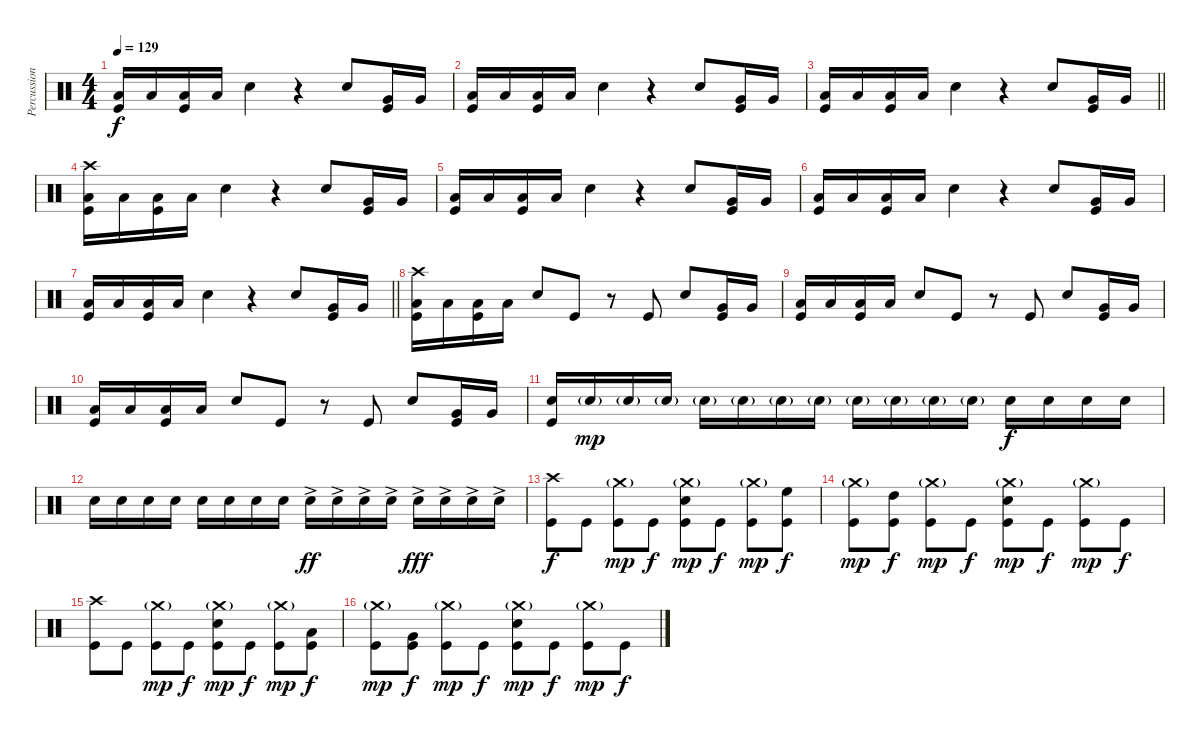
\track ("Percussion" "Percussion") {instrument percussion}
\staff {score}
\articulation defaults
\ts (4 4)
\tempo 129
\clef neutral
\ks c
("Low Tom (hit)" "Kick (hit)").16{dy f} "Low Tom (hit)".16 ("Low Floor Tom (hit)" "Kick (hit)").16 "Low Floor Tom (hit)".16 "Electric Snare (hit)".4 r.4 "Electric Snare (hit)".8 ("Very Low Tom (hit)" "Kick (hit)").16 "Very Low Tom (hit)".16 |
("Low Tom (hit)" "Kick (hit)").16 "Low Tom (hit)".16 ("Low Floor Tom (hit)" "Kick (hit)").16 "Low Floor Tom (hit)".16 "Electric Snare (hit)".4 r.4 "Electric Snare (hit)".8 ("Very Low Tom (hit)" "Kick (hit)").16 "Very Low Tom (hit)".16 |
\barLineRight lightlight
("Low Tom (hit)" "Kick (hit)").16 "Low Tom (hit)".16 ("Low Floor Tom (hit)" "Kick (hit)").16 "Low Floor Tom (hit)".16 "Electric Snare (hit)".4 r.4 "Electric Snare (hit)".8 ("Very Low Tom (hit)" "Kick (hit)").16 "Very Low Tom (hit)".16 |
("Crash high (hit)" "Low Tom (hit)" "Kick (hit)").16 "Low Tom (hit)".16 ("Low Floor Tom (hit)" "Kick (hit)").16 "Low Floor Tom (hit)".16 "Electric Snare (hit)".4 r.4 "Electric Snare (hit)".8 ("Very Low Tom (hit)" "Kick (hit)").16 "Very Low Tom (hit)".16 |
("Low Tom (hit)" "Kick (hit)").16 "Low Tom (hit)".16 ("Low Floor Tom (hit)" "Kick (hit)").16 "Low Floor Tom (hit)".16 "Electric Snare (hit)".4 r.4 "Electric Snare (hit)".8 ("Very Low Tom (hit)" "Kick (hit)").16 "Very Low Tom (hit)".16 |
("Low Tom (hit)" "Kick (hit)").16 "Low Tom (hit)".16 ("Low Floor Tom (hit)" "Kick (hit)").16 "Low Floor Tom (hit)".16 "Electric Snare (hit)".4 r.4 "Electric Snare (hit)".8 ("Very Low Tom (hit)" "Kick (hit)").16 "Very Low Tom (hit)".16 |
\barLineRight lightlight
("Low Tom (hit)" "Kick (hit)").16 "Low Tom (hit)".16 ("Low Floor Tom (hit)" "Kick (hit)").16 "Low Floor Tom (hit)".16 "Electric Snare (hit)".4 r.4 "Electric Snare (hit)".8 ("Very Low Tom (hit)" "Kick (hit)").16 "Very Low Tom (hit)".16 |
("Crash high (hit)" "Low Tom (hit)" "Kick (hit)").16 "Low Tom (hit)".16 ("Low Floor Tom (hit)" "Kick (hit)").16 "Low Floor Tom (hit)".16 "Electric Snare (hit)".8 "Kick (hit)".8 r.8 "Kick (hit)".8 "Electric Snare (hit)".8 ("Very Low Tom (hit)" "Kick (hit)").16 "Very Low Tom (hit)".16 |
("Low Tom (hit)" "Kick (hit)").16 "Low Tom (hit)".16 ("Low Floor Tom (hit)" "Kick (hit)").16 "Low Floor Tom (hit)".16 "Electric Snare (hit)".8 "Kick (hit)".8 r.8 "Kick (hit)".8 "Electric Snare (hit)".8 ("Very Low Tom (hit)" "Kick (hit)").16 "Very Low Tom (hit)".16 |
("Low Tom (hit)" "Kick (hit)").16 "Low Tom (hit)".16 ("Low Floor Tom (hit)" "Kick (hit)").16 "Low Floor Tom (hit)".16 "Electric Snare (hit)".8 "Kick (hit)".8 r.8 "Kick (hit)".8 "Electric Snare (hit)".8 ("Very Low Tom (hit)" "Kick (hit)").16 "Very Low Tom (hit)".16 |
("Electric Snare (hit)" "Kick (hit)").16 "Electric Snare (hit)"{g}.16{dy mp volume 2} "Electric Snare (hit)"{g}.16{volume 13} "Electric Snare (hit)"{g}.16 "Electric Snare (hit)"{g}.16 "Electric Snare (hit)"{g}.16 "Electric Snare (hit)"{g}.16 "Electric Snare (hit)"{g}.16 "Electric Snare (hit)"{g}.16 "Electric Snare (hit)"{g}.16 "Electric Snare (hit)"{g}.16 "Electric Snare (hit)"{g}.16 "Electric Snare (hit)".16{dy f} "Electric Snare (hit)".16 "Electric Snare (hit)".16 "Electric Snare (hit)".16 |
"Electric Snare (hit)".16 "Electric Snare (hit)".16 "Electric Snare (hit)".16 "Electric Snare (hit)".16 "Electric Snare (hit)".16 "Electric Snare (hit)".16 "Electric Snare (hit)".16 "Electric Snare (hit)".16 "Electric Snare (hit)"{ac}.16{dy ff} "Electric Snare (hit)"{ac}.16 "Electric Snare (hit)"{ac}.16 "Electric Snare (hit)"{ac}.16 "Electric Snare (hit)"{ac}.16{dy fff} "Electric Snare (hit)"{ac}.16 "Electric Snare (hit)"{ac}.16 "Electric Snare (hit)"{ac}.16 |
("Crash high (hit)" "Kick (hit)").8{dy f} "Kick (hit)".8 ("Crash medium (hit)"{g} "Kick (hit)").8{dy mp} "Kick (hit)".8{dy f} ("Crash medium (hit)"{g} "Electric Snare (hit)" "Kick (hit)").8{dy mp} "Kick (hit)".8{dy f} ("Crash medium (hit)"{g} "Kick (hit)").8{dy mp} ("High Floor Tom (hit)" "Kick (hit)").8{dy f} |
("Crash medium (hit)"{g} "Kick (hit)").8{dy mp} ("High Tom (hit)" "Kick (hit)").8{dy f} ("Crash medium (hit)"{g} "Kick (hit)").8{dy mp} "Kick (hit)".8{dy f} ("Crash medium (hit)"{g} "Electric Snare (hit)" "Kick (hit)").8{dy mp} "Kick (hit)".8{dy f} ("Crash medium (hit)"{g} "Kick (hit)").8{dy mp} "Kick (hit)".8{dy f} |
("Crash high (hit)" "Kick (hit)").8 "Kick (hit)".8 ("Crash medium (hit)"{g} "Kick (hit)").8{dy mp} "Kick (hit)".8{dy f} ("Crash medium (hit)"{g} "Electric Snare (hit)" "Kick (hit)").8{dy mp} "Kick (hit)".8{dy f} ("Crash medium (hit)"{g} "Kick (hit)").8{dy mp} ("Low Tom (hit)" "Kick (hit)").8{dy f} |
("Crash medium (hit)"{g} "Kick (hit)").8{dy mp} ("Very Low Tom (hit)" "Kick (hit)").8{dy f} ("Crash medium (hit)"{g} "Kick (hit)").8{dy mp} "Kick (hit)".8{dy f} ("Crash medium (hit)"{g} "Electric Snare (hit)" "Kick (hit)").8{dy mp} "Kick (hit)".8{dy f} ("Crash medium (hit)"{g} "Kick (hit)").8{dy mp} "Kick (hit)".8{dy f}
